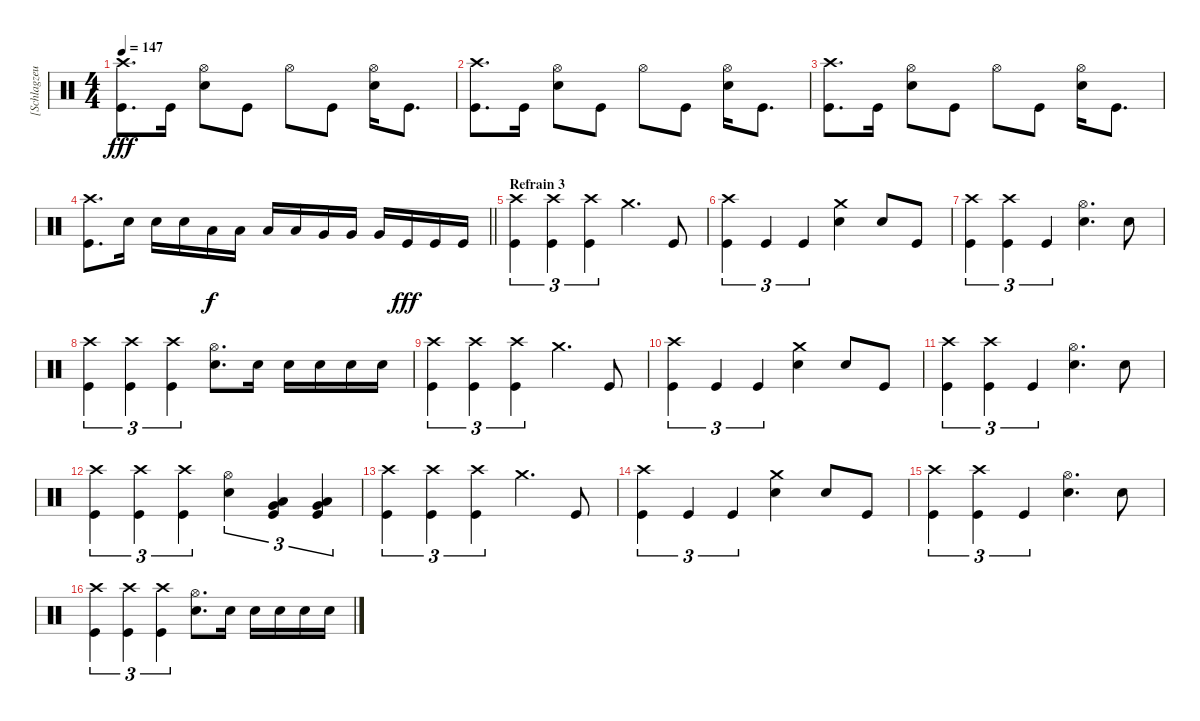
\track ("[Schlagzeug]" "[Schlagzeu") {instrument percussion}
\staff {score}
\articulation defaults
\ts (4 4)
\tempo 147
\clef neutral
\ks c
("Crash high (hit)" "Kick (hit)").8{d dy fff} "Kick (hit)".16 ("Hi-Hat (open)" "Electric Snare (hit)").8 "Kick (hit)".8 "Hi-Hat (open)".8 "Kick (hit)".8 ("Hi-Hat (open)" "Electric Snare (hit)").16 "Kick (hit)".8{d} |
("Crash high (hit)" "Kick (hit)").8{d} "Kick (hit)".16 ("Hi-Hat (open)" "Electric Snare (hit)").8 "Kick (hit)".8 "Hi-Hat (open)".8 "Kick (hit)".8 ("Hi-Hat (open)" "Electric Snare (hit)").16 "Kick (hit)".8{d} |
("Crash high (hit)" "Kick (hit)").8{d} "Kick (hit)".16 ("Hi-Hat (open)" "Electric Snare (hit)").8 "Kick (hit)".8 "Hi-Hat (open)".8 "Kick (hit)".8 ("Hi-Hat (open)" "Electric Snare (hit)").16 "Kick (hit)".8{d} |
\barLineRight lightlight
("Crash high (hit)" "Kick (hit)").8{d} "Electric Snare (hit)".16 "Electric Snare (hit)".16 "Electric Snare (hit)".16 "Low Tom (hit)".16{dy f} "Low Tom (hit)".16 "Low Tom (hit)".16 "Low Tom (hit)".16 "Very Low Tom (hit)".16 "Very Low Tom (hit)".16 "Very Low Tom (hit)".16 "Kick (hit)".16{dy fff} "Kick (hit)".16 "Kick (hit)".16 |
\section ("" "Refrain 3")
("Crash high (hit)" "Kick (hit)").4{tu (3 2)} ("Crash high (hit)" "Kick (hit)").4{tu (3 2)} ("Crash high (hit)" "Kick (hit)").4{tu (3 2)} "Crash medium (hit)".4{d} "Kick (hit)".8 |
("Crash high (hit)" "Kick (hit)").4{tu (3 2)} "Kick (hit)".4{tu (3 2)} "Kick (hit)".4{tu (3 2)} ("Crash medium (hit)" "Electric Snare (hit)").4 "Electric Snare (hit)".8 "Kick (hit)".8 |
("Crash high (hit)" "Kick (hit)").4{tu (3 2)} ("Crash high (hit)" "Kick (hit)").4{tu (3 2)} "Kick (hit)".4{tu (3 2)} ("Hi-Hat (open)" "Electric Snare (hit)").4{d} "Electric Snare (hit)".8 |
("Crash high (hit)" "Kick (hit)").4{tu (3 2)} ("Crash high (hit)" "Kick (hit)").4{tu (3 2)} ("Crash high (hit)" "Kick (hit)").4{tu (3 2)} ("Hi-Hat (open)" "Electric Snare (hit)").8{d} "Electric Snare (hit)".16 "Electric Snare (hit)".16 "Electric Snare (hit)".16 "Electric Snare (hit)".16 "Electric Snare (hit)".16 |
("Crash high (hit)" "Kick (hit)").4{tu (3 2)} ("Crash high (hit)" "Kick (hit)").4{tu (3 2)} ("Crash high (hit)" "Kick (hit)").4{tu (3 2)} "Crash medium (hit)".4{d} "Kick (hit)".8 |
("Crash high (hit)" "Kick (hit)").4{tu (3 2)} "Kick (hit)".4{tu (3 2)} "Kick (hit)".4{tu (3 2)} ("Crash medium (hit)" "Electric Snare (hit)").4 "Electric Snare (hit)".8 "Kick (hit)".8 |
("Crash high (hit)" "Kick (hit)").4{tu (3 2)} ("Crash high (hit)" "Kick (hit)").4{tu (3 2)} "Kick (hit)".4{tu (3 2)} ("Hi-Hat (open)" "Electric Snare (hit)").4{d} "Electric Snare (hit)".8 |
("Crash high (hit)" "Kick (hit)").4{tu (3 2)} ("Crash high (hit)" "Kick (hit)").4{tu (3 2)} ("Crash high (hit)" "Kick (hit)").4{tu (3 2)} ("Hi-Hat (open)" "Electric Snare (hit)").4{tu (3 2)} ("Kick (hit)" "Very Low Tom (hit)" "Low Tom (hit)").4{tu (3 2)} ("Kick (hit)" "Very Low Tom (hit)" "Low Tom (hit)").4{tu (3 2)} |
("Crash high (hit)" "Kick (hit)").4{tu (3 2)} ("Crash high (hit)" "Kick (hit)").4{tu (3 2)} ("Crash high (hit)" "Kick (hit)").4{tu (3 2)} "Crash medium (hit)".4{d} "Kick (hit)".8 |
("Crash high (hit)" "Kick (hit)").4{tu (3 2)} "Kick (hit)".4{tu (3 2)} "Kick (hit)".4{tu (3 2)} ("Crash medium (hit)" "Electric Snare (hit)").4 "Electric Snare (hit)".8 "Kick (hit)".8 |
("Crash high (hit)" "Kick (hit)").4{tu (3 2)} ("Crash high (hit)" "Kick (hit)").4{tu (3 2)} "Kick (hit)".4{tu (3 2)} ("Hi-Hat (open)" "Electric Snare (hit)").4{d} "Electric Snare (hit)".8 |
("Crash high (hit)" "Kick (hit)").4{tu (3 2)} ("Crash high (hit)" "Kick (hit)").4{tu (3 2)} ("Crash high (hit)" "Kick (hit)").4{tu (3 2)} ("Hi-Hat (open)" "Electric Snare (hit)").8{d} "Electric Snare (hit)".16 "Electric Snare (hit)".16 "Electric Snare (hit)".16 "Electric Snare (hit)".16 "Electric Snare (hit)".16
